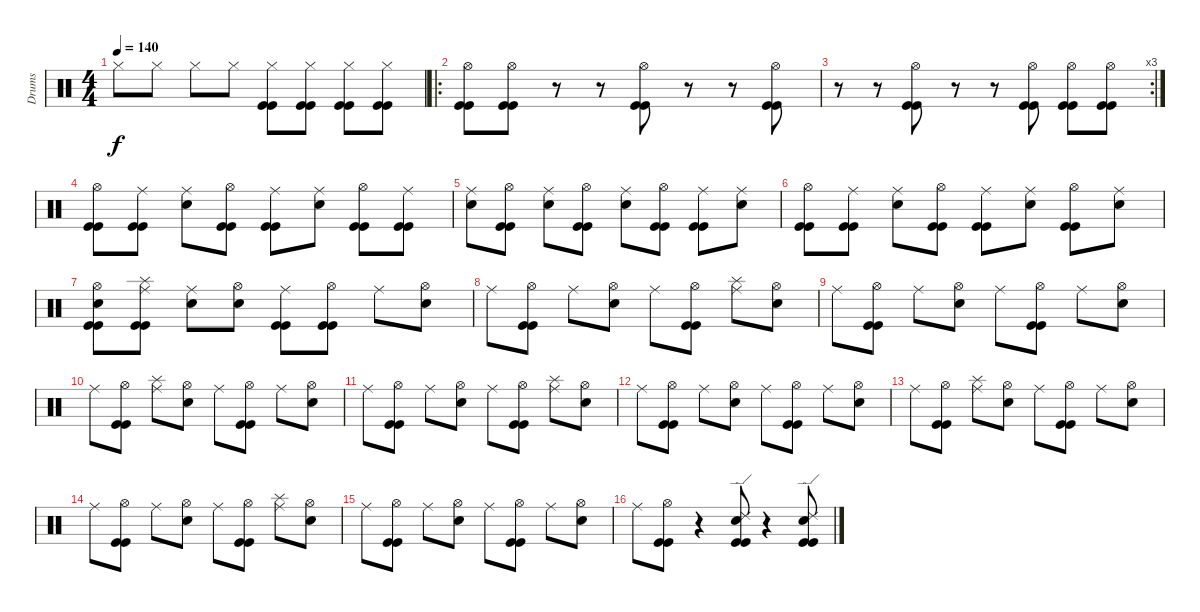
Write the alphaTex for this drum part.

\track ("Drums" "Drums") {instrument percussion}
\staff {score}
\articulation defaults
\ts (4 4)
\tempo 140
\clef neutral
\ks c "Hi-Hat (closed)".8{dy f} "Hi-Hat (closed)".8 "Hi-Hat (closed)".8 "Hi-Hat (closed)".8
("Hi-Hat (closed)" "Kick (hit)" "Kick (hit)").8 ("Hi-Hat (closed)" "Kick (hit)" "Kick (hit)").8 ("Hi-Hat (closed)" "Kick (hit)" "Kick (hit)").8 ("Hi-Hat (closed)" "Kick (hit)" "Kick (hit)").8 |
\ro
("Hi-Hat (open)" "Kick (hit)" "Kick (hit)").8 ("Hi-Hat (open)" "Kick (hit)" "Kick (hit)").8 r.8 r.8 ("Hi-Hat (open)" "Kick (hit)" "Kick (hit)").8 r.8 r.8 ("Hi-Hat (open)" "Kick (hit)" "Kick (hit)").8 |
\rc 3
r.8 r.8 ("Hi-Hat (open)" "Kick (hit)" "Kick (hit)").8 r.8 r.8 ("Hi-Hat (open)" "Kick (hit)" "Kick (hit)").8 ("Hi-Hat (open)" "Kick (hit)" "Kick (hit)").8 ("Hi-Hat (open)" "Kick (hit)" "Kick (hit)").8 |
("Hi-Hat (open)" "Kick (hit)" "Kick (hit)").8 ("Ride (middle)" "Kick (hit)" "Kick (hit)").8 ("Ride (middle)" "Electric Snare (hit)").8 ("Hi-Hat (open)" "Kick (hit)" "Kick (hit)").8 ("Ride (middle)" "Kick (hit)" "Kick (hit)").8 ("Ride (middle)" "Electric Snare (hit)").8 ("Hi-Hat (open)" "Kick (hit)" "Kick (hit)").8 ("Ride (middle)" "Kick (hit)" "Kick (hit)").8 |
("Ride (middle)" "Electric Snare (hit)").8 ("Hi-Hat (open)" "Kick (hit)" "Kick (hit)").8 ("Ride (middle)" "Electric Snare (hit)").8 ("Hi-Hat (open)" "Kick (hit)" "Kick (hit)").8 ("Ride (middle)" "Electric Snare (hit)").8 ("Hi-Hat (open)" "Kick (hit)" "Kick (hit)").8 ("Ride (middle)" "Kick (hit)" "Kick (hit)").8 ("Ride (middle)" "Electric Snare (hit)").8 |
("Hi-Hat (open)" "Kick (hit)" "Kick (hit)").8 ("Ride (middle)" "Kick (hit)" "Kick (hit)").8 ("Ride (middle)" "Electric Snare (hit)").8 ("Hi-Hat (open)" "Kick (hit)" "Kick (hit)").8 ("Ride (middle)" "Kick (hit)" "Kick (hit)").8 ("Ride (middle)" "Electric Snare (hit)").8 ("Hi-Hat (open)" "Kick (hit)" "Kick (hit)").8 ("Ride (middle)" "Electric Snare (hit)").8 |
("Hi-Hat (open)" "Electric Snare (hit)" "Kick (hit)" "Kick (hit)").8 ("Ride (middle)" "Splash (hit)" "Kick (hit)" "Kick (hit)").8 ("Ride (middle)" "Electric Snare (hit)").8 ("Hi-Hat (open)" "Electric Snare (hit)").8 ("Ride (middle)" "Kick (hit)" "Kick (hit)").8 ("Hi-Hat (open)" "Kick (hit)" "Kick (hit)").8 "Ride (middle)".8 ("Hi-Hat (open)" "Electric Snare (hit)").8 |
"Ride (middle)".8 ("Hi-Hat (open)" "Kick (hit)" "Kick (hit)").8 "Ride (middle)".8 ("Hi-Hat (open)" "Electric Snare (hit)").8 "Ride (middle)".8 ("Hi-Hat (open)" "Kick (hit)" "Kick (hit)").8 ("Ride (middle)" "Splash (hit)").8 ("Hi-Hat (open)" "Electric Snare (hit)").8 |
"Ride (middle)".8 ("Hi-Hat (open)" "Kick (hit)" "Kick (hit)").8 "Ride (middle)".8 ("Hi-Hat (open)" "Electric Snare (hit)").8 "Ride (middle)".8 ("Hi-Hat (open)" "Kick (hit)" "Kick (hit)").8 "Ride (middle)".8 ("Hi-Hat (open)" "Electric Snare (hit)").8 |
"Ride (middle)".8 ("Hi-Hat (open)" "Kick (hit)" "Kick (hit)").8 ("Ride (middle)" "Splash (hit)").8 ("Hi-Hat (open)" "Electric Snare (hit)").8 "Ride (middle)".8 ("Hi-Hat (open)" "Kick (hit)" "Kick (hit)").8 "Ride (middle)".8 ("Hi-Hat (open)" "Electric Snare (hit)").8 |
"Ride (middle)".8 ("Hi-Hat (open)" "Kick (hit)" "Kick (hit)").8 "Ride (middle)".8 ("Hi-Hat (open)" "Electric Snare (hit)").8 "Ride (middle)".8 ("Hi-Hat (open)" "Kick (hit)" "Kick (hit)").8 ("Ride (middle)" "Splash (hit)").8 ("Hi-Hat (open)" "Electric Snare (hit)").8 |
"Ride (middle)".8 ("Hi-Hat (open)" "Kick (hit)" "Kick (hit)").8 "Ride (middle)".8 ("Hi-Hat (open)" "Electric Snare (hit)").8 "Ride (middle)".8 ("Hi-Hat (open)" "Kick (hit)" "Kick (hit)").8 "Ride (middle)".8 ("Hi-Hat (open)" "Electric Snare (hit)").8 |
"Ride (middle)".8 ("Hi-Hat (open)" "Kick (hit)" "Kick (hit)").8 ("Ride (middle)" "Splash (hit)").8 ("Hi-Hat (open)" "Electric Snare (hit)").8 "Ride (middle)".8 ("Hi-Hat (open)" "Kick (hit)" "Kick (hit)").8 "Ride (middle)".8 ("Hi-Hat (open)" "Electric Snare (hit)").8 |
"Ride (middle)".8 ("Hi-Hat (open)" "Kick (hit)" "Kick (hit)").8 "Ride (middle)".8 ("Hi-Hat (open)" "Electric Snare (hit)").8 "Ride (middle)".8 ("Hi-Hat (open)" "Kick (hit)" "Kick (hit)").8 ("Ride (middle)" "Splash (hit)").8 ("Hi-Hat (open)" "Electric Snare (hit)").8 |
"Ride (middle)".8 ("Hi-Hat (open)" "Kick (hit)" "Kick (hit)").8 "Ride (middle)".8 ("Hi-Hat (open)" "Electric Snare (hit)").8 "Ride (middle)".8 ("Hi-Hat (open)" "Kick (hit)" "Kick (hit)").8 "Ride (middle)".8 ("Hi-Hat (open)" "Electric Snare (hit)").8 |
"Ride (middle)".8 ("Hi-Hat (open)" "Kick (hit)" "Kick (hit)").8 r.4 ("Ride (edge) 2" "Electric Snare (hit)" "Kick (hit)" "Kick (hit)").8 r.4 ("Ride (edge) 2" "Electric Snare (hit)" "Kick (hit)" "Kick (hit)").8
